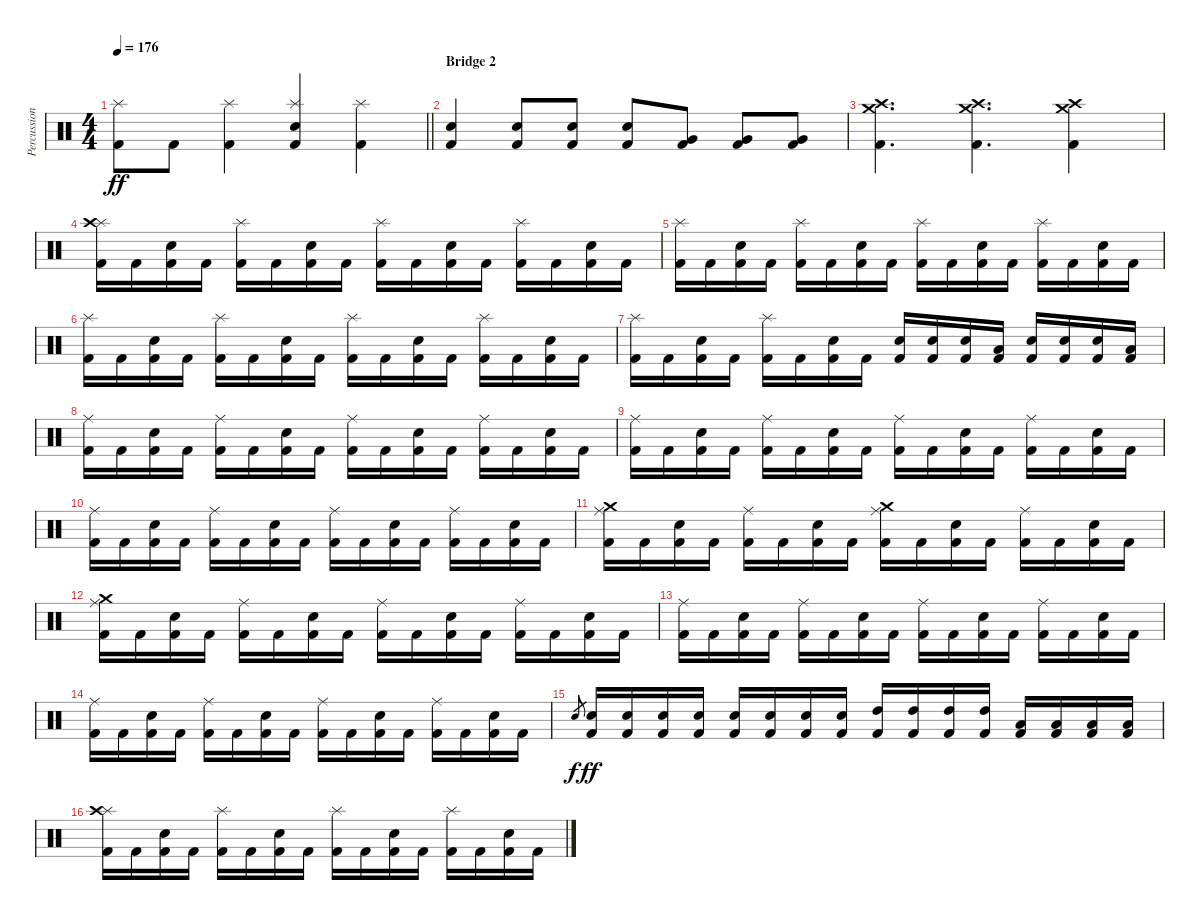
\track ("Percussion" "Percussion") {instrument percussion}
\staff {score}
\articulation defaults
\ts (4 4)
\tempo 176
\clef neutral
\barLineRight lightlight
\ks c
("Kick (hit) 2" "Splash (hit)").8{dy ff} "Kick (hit) 2".8 ("Kick (hit) 2" "Splash (hit)").4 ("Kick (hit) 2" "Electric Snare (hit)" "Splash (hit)").4 ("Kick (hit) 2" "Splash (hit)").4 |
\section ("" "Bridge 2")
("Kick (hit) 2" "Electric Snare (hit)").4 ("Kick (hit) 2" "Electric Snare (hit)").8 ("Kick (hit) 2" "Electric Snare (hit)").8 ("Kick (hit) 2" "Electric Snare (hit)").8 ("Kick (hit) 2" "Very Low Tom (hit)").8 ("Kick (hit) 2" "Very Low Tom (hit)").8 ("Kick (hit) 2" "Very Low Tom (hit)").8 |
("Kick (hit) 2" "Crash high (hit)" "Crash medium (hit)").4{d} ("Kick (hit) 2" "Crash high (hit)" "Crash medium (hit)").4{d} ("Kick (hit) 2" "Crash high (hit)" "Crash medium (hit)").4 |
("Kick (hit) 2" "Splash (hit)" "Crash high (hit)").16 "Kick (hit) 2".16 ("Kick (hit) 2" "Electric Snare (hit)").16 "Kick (hit) 2".16 ("Kick (hit) 2" "Splash (hit)").16 "Kick (hit) 2".16 ("Kick (hit) 2" "Electric Snare (hit)").16 "Kick (hit) 2".16 ("Kick (hit) 2" "Splash (hit)").16 "Kick (hit) 2".16 ("Kick (hit) 2" "Electric Snare (hit)").16 "Kick (hit) 2".16 ("Kick (hit) 2" "Splash (hit)").16 "Kick (hit) 2".16 ("Kick (hit) 2" "Electric Snare (hit)").16 "Kick (hit) 2".16 |
("Kick (hit) 2" "Splash (hit)").16 "Kick (hit) 2".16 ("Kick (hit) 2" "Electric Snare (hit)").16 "Kick (hit) 2".16 ("Kick (hit) 2" "Splash (hit)").16 "Kick (hit) 2".16 ("Kick (hit) 2" "Electric Snare (hit)").16 "Kick (hit) 2".16 ("Kick (hit) 2" "Splash (hit)").16 "Kick (hit) 2".16 ("Kick (hit) 2" "Electric Snare (hit)").16 "Kick (hit) 2".16 ("Kick (hit) 2" "Splash (hit)").16 "Kick (hit) 2".16 ("Kick (hit) 2" "Electric Snare (hit)").16 "Kick (hit) 2".16 |
("Kick (hit) 2" "Splash (hit)").16 "Kick (hit) 2".16 ("Kick (hit) 2" "Electric Snare (hit)").16 "Kick (hit) 2".16 ("Kick (hit) 2" "Splash (hit)").16 "Kick (hit) 2".16 ("Kick (hit) 2" "Electric Snare (hit)").16 "Kick (hit) 2".16 ("Kick (hit) 2" "Splash (hit)").16 "Kick (hit) 2".16 ("Kick (hit) 2" "Electric Snare (hit)").16 "Kick (hit) 2".16 ("Kick (hit) 2" "Splash (hit)").16 "Kick (hit) 2".16 ("Kick (hit) 2" "Electric Snare (hit)").16 "Kick (hit) 2".16 |
("Kick (hit) 2" "Splash (hit)").16 "Kick (hit) 2".16 ("Kick (hit) 2" "Electric Snare (hit)").16 "Kick (hit) 2".16 ("Kick (hit) 2" "Splash (hit)").16 "Kick (hit) 2".16 ("Kick (hit) 2" "Electric Snare (hit)").16 "Kick (hit) 2".16 ("Kick (hit) 2" "Electric Snare (hit)").16 ("Kick (hit) 2" "Electric Snare (hit)").16 ("Kick (hit) 2" "Electric Snare (hit)").16 ("Kick (hit) 2" "Low Tom (hit)").16 ("Kick (hit) 2" "Electric Snare (hit)").16 ("Kick (hit) 2" "Electric Snare (hit)").16 ("Kick (hit) 2" "Electric Snare (hit)").16 ("Kick (hit) 2" "Low Tom (hit)").16 |
("Kick (hit) 2" "Ride (middle)").16 "Kick (hit) 2".16 ("Kick (hit) 2" "Electric Snare (hit)").16 "Kick (hit) 2".16 ("Kick (hit) 2" "Ride (middle)").16 "Kick (hit) 2".16 ("Kick (hit) 2" "Electric Snare (hit)").16 "Kick (hit) 2".16 ("Kick (hit) 2" "Ride (middle)").16 "Kick (hit) 2".16 ("Kick (hit) 2" "Electric Snare (hit)").16 "Kick (hit) 2".16 ("Kick (hit) 2" "Ride (middle)").16 "Kick (hit) 2".16 ("Kick (hit) 2" "Electric Snare (hit)").16 "Kick (hit) 2".16 |
("Kick (hit) 2" "Ride (middle)").16 "Kick (hit) 2".16 ("Kick (hit) 2" "Electric Snare (hit)").16 "Kick (hit) 2".16 ("Kick (hit) 2" "Ride (middle)").16 "Kick (hit) 2".16 ("Kick (hit) 2" "Electric Snare (hit)").16 "Kick (hit) 2".16 ("Kick (hit) 2" "Ride (middle)").16 "Kick (hit) 2".16 ("Kick (hit) 2" "Electric Snare (hit)").16 "Kick (hit) 2".16 ("Kick (hit) 2" "Ride (middle)").16 "Kick (hit) 2".16 ("Kick (hit) 2" "Electric Snare (hit)").16 "Kick (hit) 2".16 |
("Kick (hit) 2" "Ride (middle)").16 "Kick (hit) 2".16 ("Kick (hit) 2" "Electric Snare (hit)").16 "Kick (hit) 2".16 ("Kick (hit) 2" "Ride (middle)").16 "Kick (hit) 2".16 ("Kick (hit) 2" "Electric Snare (hit)").16 "Kick (hit) 2".16 ("Kick (hit) 2" "Ride (middle)").16 "Kick (hit) 2".16 ("Kick (hit) 2" "Electric Snare (hit)").16 "Kick (hit) 2".16 ("Kick (hit) 2" "Ride (middle)").16 "Kick (hit) 2".16 ("Kick (hit) 2" "Electric Snare (hit)").16 "Kick (hit) 2".16 |
("Kick (hit) 2" "Ride (middle)" "Crash medium (hit)").16 "Kick (hit) 2".16 ("Kick (hit) 2" "Electric Snare (hit)").16 "Kick (hit) 2".16 ("Kick (hit) 2" "Ride (middle)").16 "Kick (hit) 2".16 ("Kick (hit) 2" "Electric Snare (hit)").16 "Kick (hit) 2".16 ("Kick (hit) 2" "Ride (middle)" "Crash medium (hit)").16 "Kick (hit) 2".16 ("Kick (hit) 2" "Electric Snare (hit)").16 "Kick (hit) 2".16 ("Kick (hit) 2" "Ride (middle)").16 "Kick (hit) 2".16 ("Kick (hit) 2" "Electric Snare (hit)").16 "Kick (hit) 2".16 |
("Kick (hit) 2" "Ride (middle)" "Crash medium (hit)").16 "Kick (hit) 2".16 ("Kick (hit) 2" "Electric Snare (hit)").16 "Kick (hit) 2".16 ("Kick (hit) 2" "Ride (middle)").16 "Kick (hit) 2".16 ("Kick (hit) 2" "Electric Snare (hit)").16 "Kick (hit) 2".16 ("Kick (hit) 2" "Ride (middle)").16 "Kick (hit) 2".16 ("Kick (hit) 2" "Electric Snare (hit)").16 "Kick (hit) 2".16 ("Kick (hit) 2" "Ride (middle)").16 "Kick (hit) 2".16 ("Kick (hit) 2" "Electric Snare (hit)").16 "Kick (hit) 2".16 |
("Kick (hit) 2" "Ride (middle)").16 "Kick (hit) 2".16 ("Kick (hit) 2" "Electric Snare (hit)").16 "Kick (hit) 2".16 ("Kick (hit) 2" "Ride (middle)").16 "Kick (hit) 2".16 ("Kick (hit) 2" "Electric Snare (hit)").16 "Kick (hit) 2".16 ("Kick (hit) 2" "Ride (middle)").16 "Kick (hit) 2".16 ("Kick (hit) 2" "Electric Snare (hit)").16 "Kick (hit) 2".16 ("Kick (hit) 2" "Ride (middle)").16 "Kick (hit) 2".16 ("Kick (hit) 2" "Electric Snare (hit)").16 "Kick (hit) 2".16 |
("Kick (hit) 2" "Ride (middle)").16 "Kick (hit) 2".16 ("Kick (hit) 2" "Electric Snare (hit)").16 "Kick (hit) 2".16 ("Kick (hit) 2" "Ride (middle)").16 "Kick (hit) 2".16 ("Kick (hit) 2" "Electric Snare (hit)").16 "Kick (hit) 2".16 ("Kick (hit) 2" "Ride (middle)").16 "Kick (hit) 2".16 ("Kick (hit) 2" "Electric Snare (hit)").16 "Kick (hit) 2".16 ("Kick (hit) 2" "Ride (middle)").16 "Kick (hit) 2".16 ("Kick (hit) 2" "Electric Snare (hit)").16 "Kick (hit) 2".16 |
"Electric Snare (hit)".8{gr dy f} ("Kick (hit) 2" "Electric Snare (hit)").16{dy ff} ("Kick (hit) 2" "Electric Snare (hit)").16 ("Kick (hit) 2" "Electric Snare (hit)").16 ("Kick (hit) 2" "Electric Snare (hit)").16 ("Kick (hit) 2" "Electric Snare (hit)").16 ("Kick (hit) 2" "Electric Snare (hit)").16 ("Kick (hit) 2" "Electric Snare (hit)").16 ("Kick (hit) 2" "Electric Snare (hit)").16 ("Kick (hit) 2" "High Tom (hit)").16 ("Kick (hit) 2" "High Tom (hit)").16 ("Kick (hit) 2" "High Tom (hit)").16 ("Kick (hit) 2" "High Tom (hit)").16 ("Kick (hit) 2" "Low Tom (hit)").16 ("Kick (hit) 2" "Low Tom (hit)").16 ("Kick (hit) 2" "Low Tom (hit)").16 ("Kick (hit) 2" "Low Tom (hit)").16 |
("Kick (hit) 2" "Splash (hit)" "Crash high (hit)").16 "Kick (hit) 2".16 ("Kick (hit) 2" "Electric Snare (hit)").16 "Kick (hit) 2".16 ("Kick (hit) 2" "Splash (hit)").16 "Kick (hit) 2".16 ("Kick (hit) 2" "Electric Snare (hit)").16 "Kick (hit) 2".16 ("Kick (hit) 2" "Splash (hit)").16 "Kick (hit) 2".16 ("Kick (hit) 2" "Electric Snare (hit)").16 "Kick (hit) 2".16 ("Kick (hit) 2" "Splash (hit)").16 "Kick (hit) 2".16 ("Kick (hit) 2" "Electric Snare (hit)").16 "Kick (hit) 2".16
